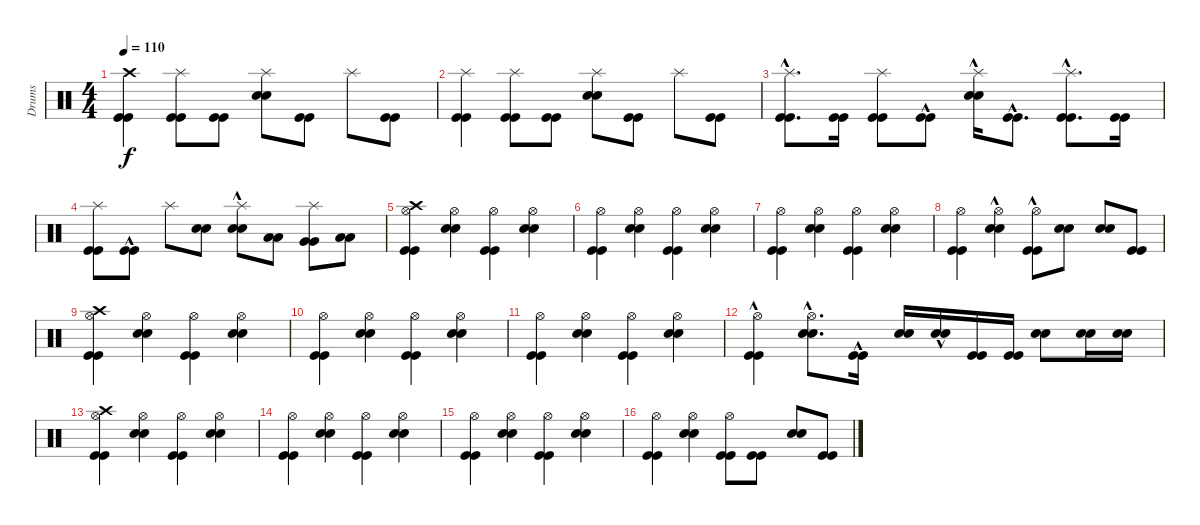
\track ("Drums" "Drums") {instrument percussion}
\staff {score}
\articulation defaults
\ts (4 4)
\tempo 110
\clef neutral
\ks c
("Kick (hit)" "Kick (hit)" "Crash high (hit)").4{dy f} ("Kick (hit)" "Kick (hit)" "Splash (hit)").8 ("Kick (hit)" "Kick (hit)").8 ("Snare (hit) 2" "Snare (hit) 2" "Splash (hit)").8 ("Kick (hit)" "Kick (hit)").8 "Splash (hit)".8 ("Kick (hit)" "Kick (hit)").8 |
("Kick (hit)" "Kick (hit)" "Splash (hit)").4 ("Kick (hit)" "Kick (hit)" "Splash (hit)").8 ("Kick (hit)" "Kick (hit)").8 ("Snare (hit) 2" "Snare (hit) 2" "Splash (hit)").8 ("Kick (hit)" "Kick (hit)").8 "Splash (hit)".8 ("Kick (hit)" "Kick (hit)").8 |
("Kick (hit)"{hac} "Kick (hit)"{hac} "Splash (hit)").8{d} ("Kick (hit)" "Kick (hit)").16 ("Kick (hit)" "Kick (hit)" "Splash (hit)").8 ("Kick (hit)"{hac} "Kick (hit)"{hac}).8 ("Snare (hit) 2"{hac} "Snare (hit) 2"{hac} "Splash (hit)").16 ("Kick (hit)"{hac} "Kick (hit)"{hac}).8{d} ("Kick (hit)"{hac} "Kick (hit)"{hac} "Splash (hit)").8{d} ("Kick (hit)" "Kick (hit)").16 |
("Kick (hit)" "Kick (hit)" "Splash (hit)").8 ("Kick (hit)"{hac} "Kick (hit)"{hac}).8 "Splash (hit)".8 ("Snare (hit) 2" "Snare (hit) 2").8 ("Snare (hit) 2"{hac} "Snare (hit) 2"{hac} "Splash (hit)").8 ("Low Tom (hit)" "Low Tom (hit)").8 ("Very Low Tom (hit)" "Very Low Tom (hit)" "Splash (hit)").8 ("Low Floor Tom (hit)" "Low Floor Tom (hit)").8 |
("Kick (hit)" "Kick (hit)" "Hi-Hat (open)" "Crash high (hit)").4 ("Snare (hit) 2" "Snare (hit) 2" "Hi-Hat (open)").4 ("Kick (hit)" "Kick (hit)" "Hi-Hat (open)").4 ("Snare (hit) 2" "Snare (hit) 2" "Hi-Hat (open)").4 |
("Kick (hit)" "Kick (hit)" "Hi-Hat (open)").4 ("Snare (hit) 2" "Snare (hit) 2" "Hi-Hat (open)").4 ("Kick (hit)" "Kick (hit)" "Hi-Hat (open)").4 ("Snare (hit) 2" "Snare (hit) 2" "Hi-Hat (open)").4 |
("Kick (hit)" "Kick (hit)" "Hi-Hat (open)").4 ("Snare (hit) 2" "Snare (hit) 2" "Hi-Hat (open)").4 ("Kick (hit)" "Kick (hit)" "Hi-Hat (open)").4 ("Snare (hit) 2" "Snare (hit) 2" "Hi-Hat (open)").4 |
("Kick (hit)" "Kick (hit)" "Hi-Hat (open)").4 ("Snare (hit) 2"{hac} "Snare (hit) 2"{hac} "Hi-Hat (open)").4 ("Kick (hit)"{hac} "Kick (hit)"{hac} "Hi-Hat (open)").8 ("Snare (hit) 2" "Snare (hit) 2").8 ("Snare (hit) 2" "Snare (hit) 2").8 ("Kick (hit)" "Kick (hit)").8 |
("Kick (hit)" "Kick (hit)" "Hi-Hat (open)" "Crash high (hit)").4 ("Snare (hit) 2" "Snare (hit) 2" "Hi-Hat (open)").4 ("Kick (hit)" "Kick (hit)" "Hi-Hat (open)").4 ("Snare (hit) 2" "Snare (hit) 2" "Hi-Hat (open)").4 |
("Kick (hit)" "Kick (hit)" "Hi-Hat (open)").4 ("Snare (hit) 2" "Snare (hit) 2" "Hi-Hat (open)").4 ("Kick (hit)" "Kick (hit)" "Hi-Hat (open)").4 ("Snare (hit) 2" "Snare (hit) 2" "Hi-Hat (open)").4 |
("Kick (hit)" "Kick (hit)" "Hi-Hat (open)").4 ("Snare (hit) 2" "Snare (hit) 2" "Hi-Hat (open)").4 ("Kick (hit)" "Kick (hit)" "Hi-Hat (open)").4 ("Snare (hit) 2" "Snare (hit) 2" "Hi-Hat (open)").4 |
("Kick (hit)"{hac} "Kick (hit)"{hac} "Hi-Hat (open)").4 ("Snare (hit) 2" "Snare (hit) 2" "Hi-Hat (open)"{hac}).8{d} ("Kick (hit)"{hac} "Kick (hit)"{hac}).16 ("Snare (hit) 2" "Snare (hit) 2").16 ("Snare (hit) 2"{hac} "Snare (hit) 2"{hac}).16 ("Kick (hit)" "Kick (hit)").16 ("Kick (hit)" "Kick (hit)").16 ("Snare (hit) 2" "Snare (hit) 2").8 ("Snare (hit) 2" "Snare (hit) 2").16 ("Snare (hit) 2" "Snare (hit) 2").16 |
("Kick (hit)" "Kick (hit)" "Hi-Hat (open)" "Crash high (hit)").4 ("Snare (hit) 2" "Snare (hit) 2" "Hi-Hat (open)").4 ("Kick (hit)" "Kick (hit)" "Hi-Hat (open)").4 ("Snare (hit) 2" "Snare (hit) 2" "Hi-Hat (open)").4 |
("Kick (hit)" "Kick (hit)" "Hi-Hat (open)").4 ("Snare (hit) 2" "Snare (hit) 2" "Hi-Hat (open)").4 ("Kick (hit)" "Kick (hit)" "Hi-Hat (open)").4 ("Snare (hit) 2" "Snare (hit) 2" "Hi-Hat (open)").4 |
("Kick (hit)" "Kick (hit)" "Hi-Hat (open)").4 ("Snare (hit) 2" "Snare (hit) 2" "Hi-Hat (open)").4 ("Kick (hit)" "Kick (hit)" "Hi-Hat (open)").4 ("Snare (hit) 2" "Snare (hit) 2" "Hi-Hat (open)").4 |
("Kick (hit)" "Kick (hit)" "Hi-Hat (open)").4 ("Snare (hit) 2" "Snare (hit) 2" "Hi-Hat (open)").4 ("Kick (hit)" "Kick (hit)" "Hi-Hat (open)").8 ("Kick (hit)" "Kick (hit)").8 ("Snare (hit) 2" "Snare (hit) 2").8 ("Kick (hit)" "Kick (hit)").8
